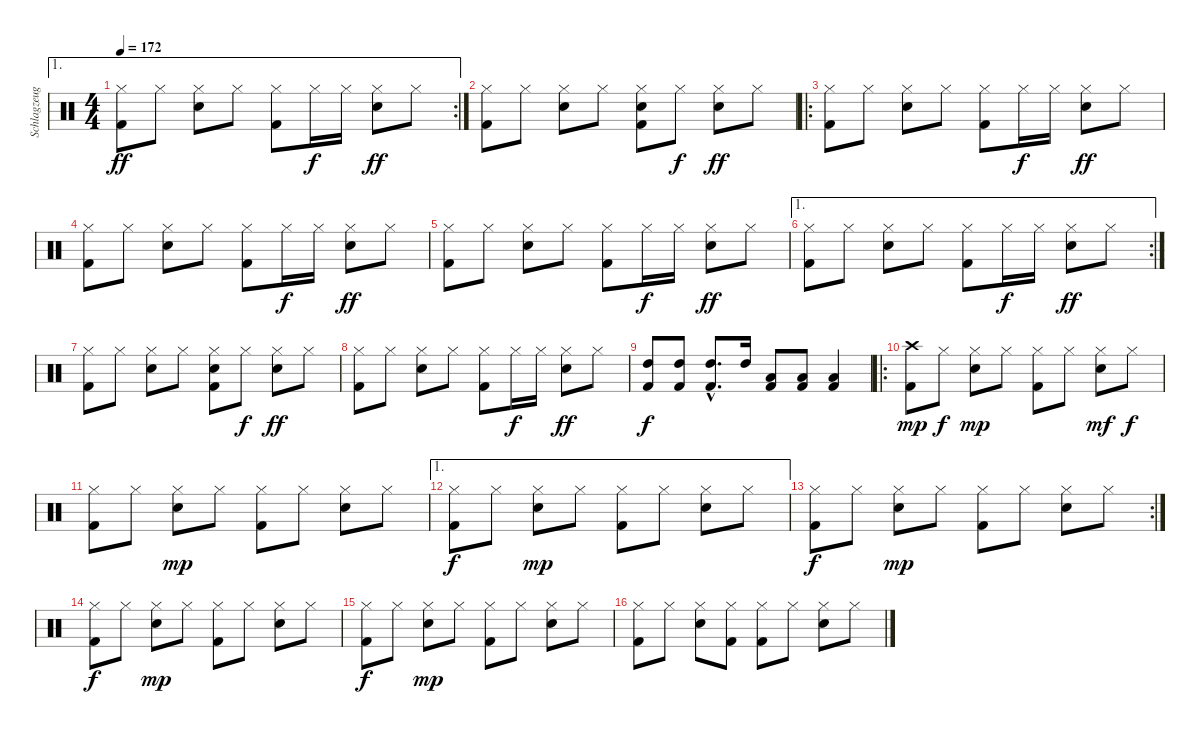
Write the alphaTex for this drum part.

\track ("Schlagzeug" "Schlagzeug") {instrument percussion}
\staff {score}
\articulation defaults
\ae 1
\rc 2
\ts (4 4)
\tempo 172
\clef neutral
\ks c
("Hi-Hat (closed)" "Kick (hit) 2").8{dy ff} "Hi-Hat (closed)".8 ("Hi-Hat (closed)" "Electric Snare (hit)").8 "Hi-Hat (closed)".8 ("Hi-Hat (closed)" "Kick (hit) 2").8 "Hi-Hat (closed)".16{dy f} "Hi-Hat (closed)".16 ("Hi-Hat (closed)" "Electric Snare (hit)").8{dy ff} "Hi-Hat (closed)".8 |
("Hi-Hat (closed)" "Kick (hit) 2").8 "Hi-Hat (closed)".8 ("Hi-Hat (closed)" "Electric Snare (hit)").8 "Hi-Hat (closed)".8 ("Hi-Hat (closed)" "Electric Snare (hit)" "Kick (hit) 2").8 "Hi-Hat (closed)".8{dy f} ("Hi-Hat (closed)" "Electric Snare (hit)").8{dy ff} "Hi-Hat (closed)".8 |
\ro
("Hi-Hat (closed)" "Kick (hit) 2").8 "Hi-Hat (closed)".8 ("Hi-Hat (closed)" "Electric Snare (hit)").8 "Hi-Hat (closed)".8 ("Hi-Hat (closed)" "Kick (hit) 2").8 "Hi-Hat (closed)".16{dy f} "Hi-Hat (closed)".16 ("Hi-Hat (closed)" "Electric Snare (hit)").8{dy ff} "Hi-Hat (closed)".8 |
("Hi-Hat (closed)" "Kick (hit) 2").8 "Hi-Hat (closed)".8 ("Hi-Hat (closed)" "Electric Snare (hit)").8 "Hi-Hat (closed)".8 ("Hi-Hat (closed)" "Kick (hit) 2").8 "Hi-Hat (closed)".16{dy f} "Hi-Hat (closed)".16 ("Hi-Hat (closed)" "Electric Snare (hit)").8{dy ff} "Hi-Hat (closed)".8 |
("Hi-Hat (closed)" "Kick (hit) 2").8 "Hi-Hat (closed)".8 ("Hi-Hat (closed)" "Electric Snare (hit)").8 "Hi-Hat (closed)".8 ("Hi-Hat (closed)" "Kick (hit) 2").8 "Hi-Hat (closed)".16{dy f} "Hi-Hat (closed)".16 ("Hi-Hat (closed)" "Electric Snare (hit)").8{dy ff} "Hi-Hat (closed)".8 |
\ae 1
\rc 2
("Hi-Hat (closed)" "Kick (hit) 2").8 "Hi-Hat (closed)".8 ("Hi-Hat (closed)" "Electric Snare (hit)").8 "Hi-Hat (closed)".8 ("Hi-Hat (closed)" "Kick (hit) 2").8 "Hi-Hat (closed)".16{dy f} "Hi-Hat (closed)".16 ("Hi-Hat (closed)" "Electric Snare (hit)").8{dy ff} "Hi-Hat (closed)".8 |
("Hi-Hat (closed)" "Kick (hit) 2").8 "Hi-Hat (closed)".8 ("Hi-Hat (closed)" "Electric Snare (hit)").8 "Hi-Hat (closed)".8 ("Hi-Hat (closed)" "Electric Snare (hit)" "Kick (hit) 2").8 "Hi-Hat (closed)".8{dy f} ("Hi-Hat (closed)" "Electric Snare (hit)").8{dy ff} "Hi-Hat (closed)".8 |
("Hi-Hat (closed)" "Kick (hit) 2").8 "Hi-Hat (closed)".8 ("Hi-Hat (closed)" "Electric Snare (hit)").8 "Hi-Hat (closed)".8 ("Hi-Hat (closed)" "Kick (hit) 2").8 "Hi-Hat (closed)".16{dy f} "Hi-Hat (closed)".16 ("Hi-Hat (closed)" "Electric Snare (hit)").8{dy ff} "Hi-Hat (closed)".8 |
("High Tom (hit)" "Kick (hit) 2").8{dy f} ("High Tom (hit)" "Kick (hit) 2").8 ("High Tom (hit)"{hac} "Kick (hit) 2"{hac}).8{d} "High Tom (hit)".16 ("Low Tom (hit)" "Kick (hit) 2").8 ("Low Tom (hit)" "Kick (hit) 2").8 ("Low Tom (hit)" "Kick (hit) 2").4 |
\ro
("Crash high (hit)" "Kick (hit) 2").8{dy mp} "Hi-Hat (closed)".8{dy f} ("Hi-Hat (closed)" "Electric Snare (hit)").8{dy mp} "Hi-Hat (closed)".8 ("Hi-Hat (closed)" "Kick (hit) 2").8 "Hi-Hat (closed)".8 ("Hi-Hat (closed)" "Electric Snare (hit)").8{dy mf} "Hi-Hat (closed)".8{dy f} |
("Hi-Hat (closed)" "Kick (hit) 2").8 "Hi-Hat (closed)".8 ("Hi-Hat (closed)" "Electric Snare (hit)").8{dy mp} "Hi-Hat (closed)".8 ("Hi-Hat (closed)" "Kick (hit) 2").8 "Hi-Hat (closed)".8 ("Hi-Hat (closed)" "Electric Snare (hit)").8 "Hi-Hat (closed)".8 |
\ae 1
("Hi-Hat (closed)" "Kick (hit) 2").8{dy f} "Hi-Hat (closed)".8 ("Hi-Hat (closed)" "Electric Snare (hit)").8{dy mp} "Hi-Hat (closed)".8 ("Hi-Hat (closed)" "Kick (hit) 2").8 "Hi-Hat (closed)".8 ("Hi-Hat (closed)" "Electric Snare (hit)").8 "Hi-Hat (closed)".8 |
\rc 2
("Hi-Hat (closed)" "Kick (hit) 2").8{dy f} "Hi-Hat (closed)".8 ("Hi-Hat (closed)" "Electric Snare (hit)").8{dy mp} "Hi-Hat (closed)".8 ("Hi-Hat (closed)" "Kick (hit) 2").8 "Hi-Hat (closed)".8 ("Hi-Hat (closed)" "Electric Snare (hit)").8 "Hi-Hat (closed)".8 |
("Hi-Hat (closed)" "Kick (hit) 2").8{dy f} "Hi-Hat (closed)".8 ("Hi-Hat (closed)" "Electric Snare (hit)").8{dy mp} "Hi-Hat (closed)".8 ("Hi-Hat (closed)" "Kick (hit) 2").8 "Hi-Hat (closed)".8 ("Hi-Hat (closed)" "Electric Snare (hit)").8 "Hi-Hat (closed)".8 |
("Hi-Hat (closed)" "Kick (hit) 2").8{dy f} "Hi-Hat (closed)".8 ("Hi-Hat (closed)" "Electric Snare (hit)").8{dy mp} "Hi-Hat (closed)".8 ("Hi-Hat (closed)" "Kick (hit) 2").8 "Hi-Hat (closed)".8 ("Hi-Hat (closed)" "Electric Snare (hit)").8 "Hi-Hat (closed)".8 |
("Hi-Hat (closed)" "Kick (hit) 2").8 "Hi-Hat (closed)".8 ("Hi-Hat (closed)" "Electric Snare (hit)").8 ("Hi-Hat (closed)" "Kick (hit) 2").8 ("Hi-Hat (closed)" "Kick (hit) 2").8 "Hi-Hat (closed)".8 ("Hi-Hat (closed)" "Electric Snare (hit)").8 "Hi-Hat (closed)".8
